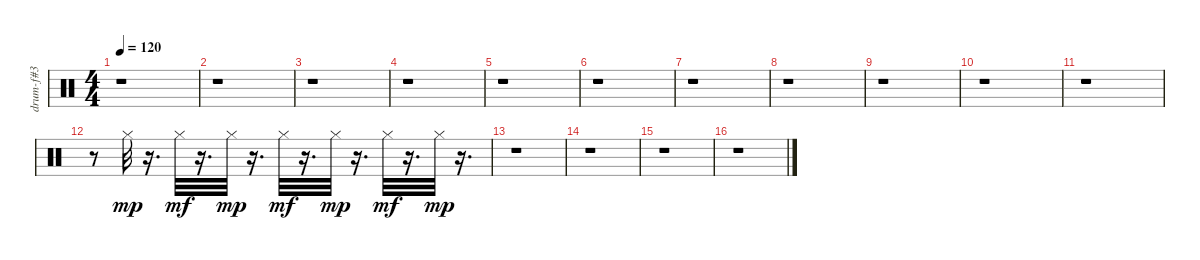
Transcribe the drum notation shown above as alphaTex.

\track ("drum-f#3" "drum-f#3") {instrument percussion}
\staff {score}
\articulation defaults
\ts (4 4)
\tempo 120
\clef neutral
\ks c
r.1{dy mp} |
r.1 |
r.1 |
r.1 |
r.1 |
r.1 |
r.1 |
r.1 |
r.1 |
r.1 |
r.1 |
r.8 "Hi-Hat (closed)".32 r.16{d} "Hi-Hat (closed)".32{dy mf} r.16{d} "Hi-Hat (closed)".32{dy mp} r.16{d} "Hi-Hat (closed)".32{dy mf} r.16{d} "Hi-Hat (closed)".32{dy mp} r.16{d} "Hi-Hat (closed)".32{dy mf} r.16{d} "Hi-Hat (closed)".32{dy mp} r.16{d} |
r.1 |
r.1 |
r.1 |
r.1
